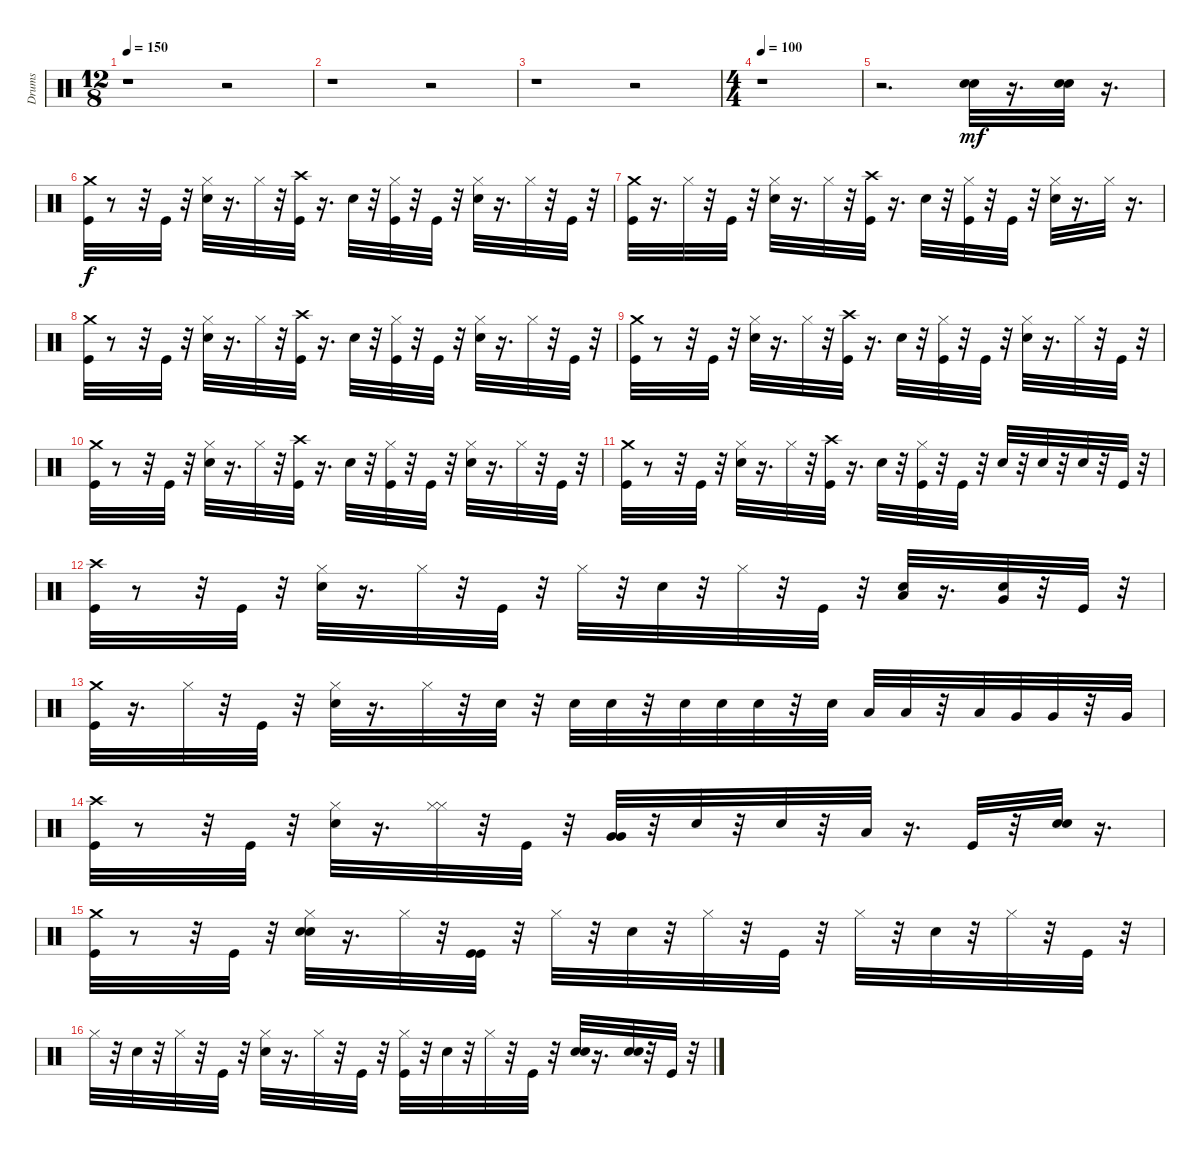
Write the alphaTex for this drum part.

\track ("Drums" "Drums") {instrument percussion}
\staff {score}
\articulation defaults
\ts (12 8)
\tempo 150
\clef neutral
\ks c
r.1{dy mf} r.2 |
r.1 r.2 |
r.1 r.2 |
\ts (4 4)
\tempo 100
r.1 |
r.2{d} ("Electric Snare (hit)" "Snare (hit) 2").32 r.16{d} ("Electric Snare (hit)" "Snare (hit) 2").32 r.16{d} |
("Kick (hit)" "Crash medium (hit)").32{dy f} r.8 r.32 "Kick (hit)".32 r.32 ("Hi-Hat (closed)" "Snare (hit) 2").32 r.16{d} "Hi-Hat (closed)".32 r.32 ("Crash high (hit)" "Kick (hit)").32 r.16{d} "Snare (hit) 2".32 r.32 ("Hi-Hat (closed)" "Kick (hit)").32 r.32 "Kick (hit)".32 r.32 ("Hi-Hat (closed)" "Snare (hit) 2").32 r.16{d} "Hi-Hat (closed)".32 r.32 "Kick (hit)".32 r.32 |
("Crash medium (hit)" "Kick (hit)").32 r.16{d} "Hi-Hat (closed)".32 r.32 "Kick (hit)".32 r.32 ("Hi-Hat (closed)" "Snare (hit) 2").32 r.16{d} "Hi-Hat (closed)".32 r.32 ("Crash high (hit)" "Kick (hit)").32 r.16{d} "Snare (hit) 2".32 r.32 ("Hi-Hat (closed)" "Kick (hit)").32 r.32 "Kick (hit)".32 r.32 ("Hi-Hat (closed)" "Snare (hit) 2").32 r.16{d} "Hi-Hat (closed)".32 r.16{d} |
("Kick (hit)" "Crash medium (hit)").32 r.8 r.32 "Kick (hit)".32 r.32 ("Hi-Hat (closed)" "Snare (hit) 2").32 r.16{d} "Hi-Hat (closed)".32 r.32 ("Crash high (hit)" "Kick (hit)").32 r.16{d} "Snare (hit) 2".32 r.32 ("Hi-Hat (closed)" "Kick (hit)").32 r.32 "Kick (hit)".32 r.32 ("Hi-Hat (closed)" "Snare (hit) 2").32 r.16{d} "Hi-Hat (closed)".32 r.32 "Kick (hit)".32 r.32 |
("Kick (hit)" "Crash medium (hit)").32 r.8 r.32 "Kick (hit)".32 r.32 ("Hi-Hat (closed)" "Snare (hit) 2").32 r.16{d} "Hi-Hat (closed)".32 r.32 ("Crash high (hit)" "Kick (hit)").32 r.16{d} "Snare (hit) 2".32 r.32 ("Hi-Hat (closed)" "Kick (hit)").32 r.32 "Kick (hit)".32 r.32 ("Hi-Hat (closed)" "Snare (hit) 2").32 r.16{d} "Hi-Hat (closed)".32 r.32 "Kick (hit)".32 r.32 |
("Kick (hit)" "Crash medium (hit)").32 r.8 r.32 "Kick (hit)".32 r.32 ("Hi-Hat (closed)" "Snare (hit) 2").32 r.16{d} "Hi-Hat (closed)".32 r.32 ("Crash high (hit)" "Kick (hit)").32 r.16{d} "Snare (hit) 2".32 r.32 ("Hi-Hat (closed)" "Kick (hit)").32 r.32 "Kick (hit)".32 r.32 ("Hi-Hat (closed)" "Snare (hit) 2").32 r.16{d} "Hi-Hat (closed)".32 r.32 "Kick (hit)".32 r.32 |
("Kick (hit)" "Crash medium (hit)").32 r.8 r.32 "Kick (hit)".32 r.32 ("Hi-Hat (closed)" "Snare (hit) 2").32 r.16{d} "Hi-Hat (closed)".32 r.32 ("Crash high (hit)" "Kick (hit)").32 r.16{d} "Snare (hit) 2".32 r.32 ("Hi-Hat (closed)" "Kick (hit)").32 r.32 "Kick (hit)".32 r.32 "Snare (hit) 2".32 r.32 "Snare (hit) 2".32 r.32 "Snare (hit) 2".32 r.32 "Kick (hit)".32 r.32 |
("Kick (hit)" "Crash high (hit)").32 r.8 r.32 "Kick (hit)".32 r.32 ("Hi-Hat (closed)" "Snare (hit) 2").32 r.16{d} "Hi-Hat (closed)".32 r.32 "Kick (hit)".32 r.32 "Hi-Hat (closed)".32 r.32 "Snare (hit) 2".32 r.32 "Hi-Hat (closed)".32 r.32 "Kick (hit)".32 r.32 ("Low Tom (hit)" "Snare (hit) 2").32 r.16{d} ("Snare (hit) 2" "Very Low Tom (hit)").32 r.32 "Kick (hit)".32 r.32 |
("Kick (hit)" "Crash medium (hit)").32 r.16{d} "Hi-Hat (closed)".32 r.32 "Kick (hit)".32 r.32 ("Snare (hit) 2" "Hi-Hat (closed)").32 r.16{d} "Hi-Hat (closed)".32 r.32 "Snare (hit) 2".32 r.32 "Snare (hit) 2".32 "Snare (hit) 2".32 r.32 "Snare (hit) 2".32 "Electric Snare (hit)".32 "Electric Snare (hit)".32 r.32 "Electric Snare (hit)".32 "Low Tom (hit)".32 "Low Tom (hit)".32 r.32 "Low Tom (hit)".32 "Very Low Tom (hit)".32 "Very Low Tom (hit)".32 r.32 "Very Low Tom (hit)".32 |
("Crash high (hit)" "Kick (hit)").32 r.8 r.32 "Kick (hit)".32 r.32 ("Hi-Hat (closed)" "Snare (hit) 2").32 r.16{d} ("Hi-Hat (closed)" "Hi-Hat (closed)").32 r.32 "Kick (hit)".32 r.32 ("Very Low Tom (hit)" "Very Low Tom (hit)").32 r.32 "Electric Snare (hit)".32 r.32 "Electric Snare (hit)".32 r.32 "Low Tom (hit)".32 r.16{d} "Kick (hit)".32 r.32 ("Electric Snare (hit)" "Snare (hit) 2").32 r.16{d} |
("Kick (hit)" "Crash medium (hit)").32 r.8 r.32 "Kick (hit)".32 r.32 ("Snare (hit) 2" "Snare (hit) 2" "Hi-Hat (closed)").32 r.16{d} "Hi-Hat (closed)".32 r.32 ("Kick (hit)" "Kick (hit)").32 r.32 "Hi-Hat (closed)".32 r.32 "Snare (hit) 2".32 r.32 "Hi-Hat (closed)".32 r.32 "Kick (hit)".32 r.32 "Hi-Hat (closed)".32 r.32 "Snare (hit) 2".32 r.32 "Hi-Hat (closed)".32 r.32 "Kick (hit)".32 r.32 |
"Hi-Hat (closed)".32 r.32 "Snare (hit) 2".32 r.32 "Hi-Hat (closed)".32 r.32 "Kick (hit)".32 r.32 ("Snare (hit) 2" "Hi-Hat (closed)").32 r.16{d} "Hi-Hat (closed)".32 r.32 "Kick (hit)".32 r.32 ("Kick (hit)" "Hi-Hat (closed)").32 r.32 "Snare (hit) 2".32 r.32 "Hi-Hat (closed)".32 r.32 "Kick (hit)".32 r.32 ("Electric Snare (hit)" "Snare (hit) 2").32 r.16{d} ("Electric Snare (hit)" "Snare (hit) 2").32 r.32 "Kick (hit)".32 r.32
